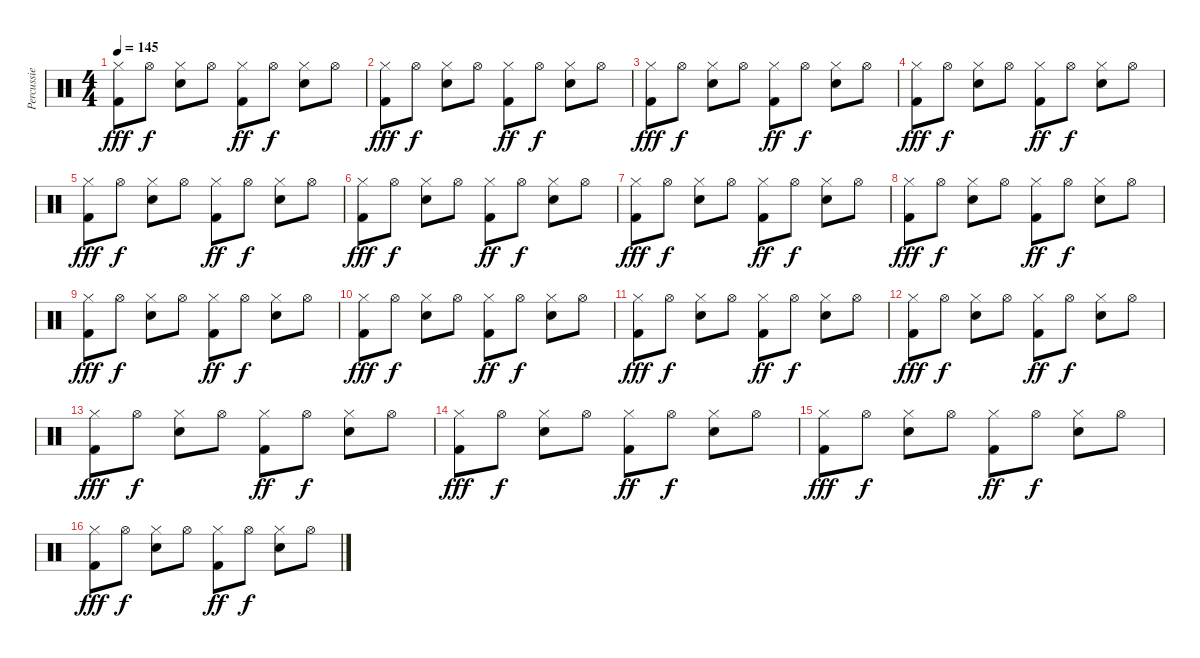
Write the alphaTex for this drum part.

\track ("Percussie" "Percussie") {instrument percussion}
\staff {score}
\articulation defaults
\ts (4 4)
\tempo 145
\clef neutral
\ks c
("Kick (hit) 2" "Hi-Hat (closed)").8{dy fff} "Hi-Hat (open)".8{dy f} ("Electric Snare (hit)" "Hi-Hat (closed)").8 "Hi-Hat (open)".8 ("Kick (hit) 2" "Hi-Hat (closed)").8{dy ff} "Hi-Hat (open)".8{dy f} ("Electric Snare (hit)" "Hi-Hat (closed)").8 "Hi-Hat (open)".8 |
("Kick (hit) 2" "Hi-Hat (closed)").8{dy fff} "Hi-Hat (open)".8{dy f} ("Electric Snare (hit)" "Hi-Hat (closed)").8 "Hi-Hat (open)".8 ("Kick (hit) 2" "Hi-Hat (closed)").8{dy ff} "Hi-Hat (open)".8{dy f} ("Electric Snare (hit)" "Hi-Hat (closed)").8 "Hi-Hat (open)".8 |
("Kick (hit) 2" "Hi-Hat (closed)").8{dy fff} "Hi-Hat (open)".8{dy f} ("Electric Snare (hit)" "Hi-Hat (closed)").8 "Hi-Hat (open)".8 ("Kick (hit) 2" "Hi-Hat (closed)").8{dy ff} "Hi-Hat (open)".8{dy f} ("Electric Snare (hit)" "Hi-Hat (closed)").8 "Hi-Hat (open)".8 |
("Kick (hit) 2" "Hi-Hat (closed)").8{dy fff} "Hi-Hat (open)".8{dy f} ("Electric Snare (hit)" "Hi-Hat (closed)").8 "Hi-Hat (open)".8 ("Kick (hit) 2" "Hi-Hat (closed)").8{dy ff} "Hi-Hat (open)".8{dy f} ("Electric Snare (hit)" "Hi-Hat (closed)").8 "Hi-Hat (open)".8 |
("Kick (hit) 2" "Hi-Hat (closed)").8{dy fff} "Hi-Hat (open)".8{dy f} ("Electric Snare (hit)" "Hi-Hat (closed)").8 "Hi-Hat (open)".8 ("Kick (hit) 2" "Hi-Hat (closed)").8{dy ff} "Hi-Hat (open)".8{dy f} ("Electric Snare (hit)" "Hi-Hat (closed)").8 "Hi-Hat (open)".8 |
("Kick (hit) 2" "Hi-Hat (closed)").8{dy fff} "Hi-Hat (open)".8{dy f} ("Electric Snare (hit)" "Hi-Hat (closed)").8 "Hi-Hat (open)".8 ("Kick (hit) 2" "Hi-Hat (closed)").8{dy ff} "Hi-Hat (open)".8{dy f} ("Electric Snare (hit)" "Hi-Hat (closed)").8 "Hi-Hat (open)".8 |
("Kick (hit) 2" "Hi-Hat (closed)").8{dy fff} "Hi-Hat (open)".8{dy f} ("Electric Snare (hit)" "Hi-Hat (closed)").8 "Hi-Hat (open)".8 ("Kick (hit) 2" "Hi-Hat (closed)").8{dy ff} "Hi-Hat (open)".8{dy f} ("Electric Snare (hit)" "Hi-Hat (closed)").8 "Hi-Hat (open)".8 |
("Kick (hit) 2" "Hi-Hat (closed)").8{dy fff} "Hi-Hat (open)".8{dy f} ("Electric Snare (hit)" "Hi-Hat (closed)").8 "Hi-Hat (open)".8 ("Kick (hit) 2" "Hi-Hat (closed)").8{dy ff} "Hi-Hat (open)".8{dy f} ("Electric Snare (hit)" "Hi-Hat (closed)").8 "Hi-Hat (open)".8 |
("Kick (hit) 2" "Hi-Hat (closed)").8{dy fff} "Hi-Hat (open)".8{dy f} ("Electric Snare (hit)" "Hi-Hat (closed)").8 "Hi-Hat (open)".8 ("Kick (hit) 2" "Hi-Hat (closed)").8{dy ff} "Hi-Hat (open)".8{dy f} ("Electric Snare (hit)" "Hi-Hat (closed)").8 "Hi-Hat (open)".8 |
("Kick (hit) 2" "Hi-Hat (closed)").8{dy fff} "Hi-Hat (open)".8{dy f} ("Electric Snare (hit)" "Hi-Hat (closed)").8 "Hi-Hat (open)".8 ("Kick (hit) 2" "Hi-Hat (closed)").8{dy ff} "Hi-Hat (open)".8{dy f} ("Electric Snare (hit)" "Hi-Hat (closed)").8 "Hi-Hat (open)".8 |
("Kick (hit) 2" "Hi-Hat (closed)").8{dy fff} "Hi-Hat (open)".8{dy f} ("Electric Snare (hit)" "Hi-Hat (closed)").8 "Hi-Hat (open)".8 ("Kick (hit) 2" "Hi-Hat (closed)").8{dy ff} "Hi-Hat (open)".8{dy f} ("Electric Snare (hit)" "Hi-Hat (closed)").8 "Hi-Hat (open)".8 |
("Kick (hit) 2" "Hi-Hat (closed)").8{dy fff} "Hi-Hat (open)".8{dy f} ("Electric Snare (hit)" "Hi-Hat (closed)").8 "Hi-Hat (open)".8 ("Kick (hit) 2" "Hi-Hat (closed)").8{dy ff} "Hi-Hat (open)".8{dy f} ("Electric Snare (hit)" "Hi-Hat (closed)").8 "Hi-Hat (open)".8 |
("Kick (hit) 2" "Hi-Hat (closed)").8{dy fff} "Hi-Hat (open)".8{dy f} ("Electric Snare (hit)" "Hi-Hat (closed)").8 "Hi-Hat (open)".8 ("Kick (hit) 2" "Hi-Hat (closed)").8{dy ff} "Hi-Hat (open)".8{dy f} ("Electric Snare (hit)" "Hi-Hat (closed)").8 "Hi-Hat (open)".8 |
("Kick (hit) 2" "Hi-Hat (closed)").8{dy fff} "Hi-Hat (open)".8{dy f} ("Electric Snare (hit)" "Hi-Hat (closed)").8 "Hi-Hat (open)".8 ("Kick (hit) 2" "Hi-Hat (closed)").8{dy ff} "Hi-Hat (open)".8{dy f} ("Electric Snare (hit)" "Hi-Hat (closed)").8 "Hi-Hat (open)".8 |
("Kick (hit) 2" "Hi-Hat (closed)").8{dy fff} "Hi-Hat (open)".8{dy f} ("Electric Snare (hit)" "Hi-Hat (closed)").8 "Hi-Hat (open)".8 ("Kick (hit) 2" "Hi-Hat (closed)").8{dy ff} "Hi-Hat (open)".8{dy f} ("Electric Snare (hit)" "Hi-Hat (closed)").8 "Hi-Hat (open)".8 |
("Kick (hit) 2" "Hi-Hat (closed)").8{dy fff} "Hi-Hat (open)".8{dy f} ("Electric Snare (hit)" "Hi-Hat (closed)").8 "Hi-Hat (open)".8 ("Kick (hit) 2" "Hi-Hat (closed)").8{dy ff} "Hi-Hat (open)".8{dy f} ("Electric Snare (hit)" "Hi-Hat (closed)").8 "Hi-Hat (open)".8
